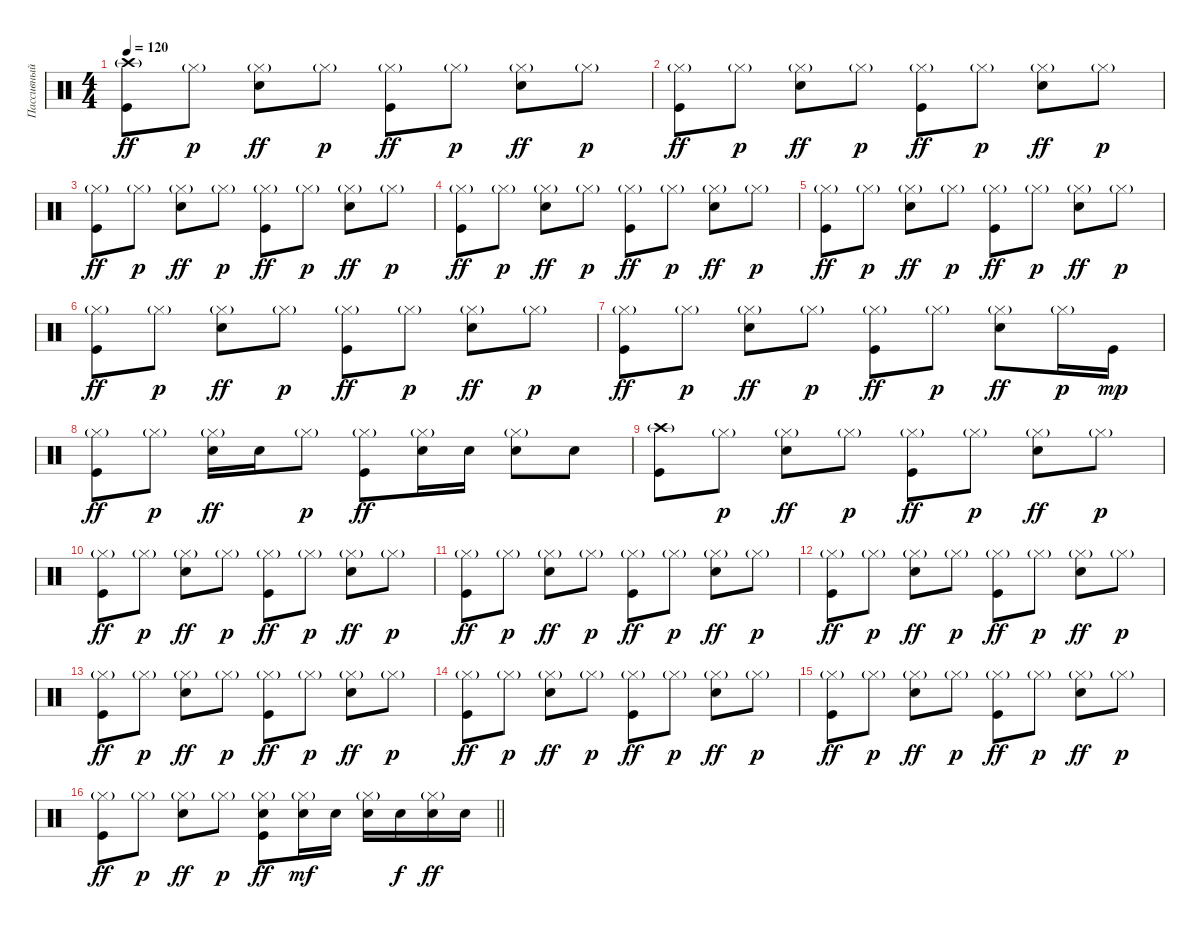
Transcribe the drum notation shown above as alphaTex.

\track ("Пассивный ударник" "Пассивный ") {instrument percussion}
\staff {score}
\articulation defaults
\ts (4 4)
\tempo 120
\clef neutral
\ks c
("Crash high (hit)"{g} "Kick (hit)").8{dy ff} "Hi-Hat (closed)"{g}.8{dy p} ("Hi-Hat (closed)"{g} "Electric Snare (hit)").8{dy ff} "Hi-Hat (closed)"{g}.8{dy p} ("Hi-Hat (closed)"{g} "Kick (hit)").8{dy ff} "Hi-Hat (closed)"{g}.8{dy p} ("Hi-Hat (closed)"{g} "Electric Snare (hit)").8{dy ff} "Hi-Hat (closed)"{g}.8{dy p} |
("Hi-Hat (closed)"{g} "Kick (hit)").8{dy ff} "Hi-Hat (closed)"{g}.8{dy p} ("Hi-Hat (closed)"{g} "Electric Snare (hit)").8{dy ff} "Hi-Hat (closed)"{g}.8{dy p} ("Hi-Hat (closed)"{g} "Kick (hit)").8{dy ff} "Hi-Hat (closed)"{g}.8{dy p} ("Hi-Hat (closed)"{g} "Electric Snare (hit)").8{dy ff} "Hi-Hat (closed)"{g}.8{dy p} |
("Hi-Hat (closed)"{g} "Kick (hit)").8{dy ff} "Hi-Hat (closed)"{g}.8{dy p} ("Hi-Hat (closed)"{g} "Electric Snare (hit)").8{dy ff} "Hi-Hat (closed)"{g}.8{dy p} ("Hi-Hat (closed)"{g} "Kick (hit)").8{dy ff} "Hi-Hat (closed)"{g}.8{dy p} ("Hi-Hat (closed)"{g} "Electric Snare (hit)").8{dy ff} "Hi-Hat (closed)"{g}.8{dy p} |
("Hi-Hat (closed)"{g} "Kick (hit)").8{dy ff} "Hi-Hat (closed)"{g}.8{dy p} ("Hi-Hat (closed)"{g} "Electric Snare (hit)").8{dy ff} "Hi-Hat (closed)"{g}.8{dy p} ("Hi-Hat (closed)"{g} "Kick (hit)").8{dy ff} "Hi-Hat (closed)"{g}.8{dy p} ("Hi-Hat (closed)"{g} "Electric Snare (hit)").8{dy ff} "Hi-Hat (closed)"{g}.8{dy p} |
("Hi-Hat (closed)"{g} "Kick (hit)").8{dy ff} "Hi-Hat (closed)"{g}.8{dy p} ("Hi-Hat (closed)"{g} "Electric Snare (hit)").8{dy ff} "Hi-Hat (closed)"{g}.8{dy p} ("Hi-Hat (closed)"{g} "Kick (hit)").8{dy ff} "Hi-Hat (closed)"{g}.8{dy p} ("Hi-Hat (closed)"{g} "Electric Snare (hit)").8{dy ff} "Hi-Hat (closed)"{g}.8{dy p} |
("Hi-Hat (closed)"{g} "Kick (hit)").8{dy ff} "Hi-Hat (closed)"{g}.8{dy p} ("Hi-Hat (closed)"{g} "Electric Snare (hit)").8{dy ff} "Hi-Hat (closed)"{g}.8{dy p} ("Hi-Hat (closed)"{g} "Kick (hit)").8{dy ff} "Hi-Hat (closed)"{g}.8{dy p} ("Hi-Hat (closed)"{g} "Electric Snare (hit)").8{dy ff} "Hi-Hat (closed)"{g}.8{dy p} |
("Hi-Hat (closed)"{g} "Kick (hit)").8{dy ff} "Hi-Hat (closed)"{g}.8{dy p} ("Hi-Hat (closed)"{g} "Electric Snare (hit)").8{dy ff} "Hi-Hat (closed)"{g}.8{dy p} ("Hi-Hat (closed)"{g} "Kick (hit)").8{dy ff} "Hi-Hat (closed)"{g}.8{dy p} ("Hi-Hat (closed)"{g} "Electric Snare (hit)").8{dy ff} "Hi-Hat (closed)"{g}.16{dy p} "Kick (hit)".16{dy mp} |
("Hi-Hat (closed)"{g} "Kick (hit)").8{dy ff} "Hi-Hat (closed)"{g}.8{dy p} ("Hi-Hat (closed)"{g} "Electric Snare (hit)").16{dy ff} "Electric Snare (hit)".16 "Hi-Hat (closed)"{g}.8{dy p} ("Hi-Hat (closed)"{g} "Kick (hit)").8{dy ff} ("Hi-Hat (closed)"{g} "Electric Snare (hit)").16 "Electric Snare (hit)".16 ("Hi-Hat (closed)"{g} "Electric Snare (hit)").8 "Electric Snare (hit)".8 |
("Crash high (hit)"{g} "Kick (hit)").8 "Hi-Hat (closed)"{g}.8{dy p} ("Hi-Hat (closed)"{g} "Electric Snare (hit)").8{dy ff} "Hi-Hat (closed)"{g}.8{dy p} ("Hi-Hat (closed)"{g} "Kick (hit)").8{dy ff} "Hi-Hat (closed)"{g}.8{dy p} ("Hi-Hat (closed)"{g} "Electric Snare (hit)").8{dy ff} "Hi-Hat (closed)"{g}.8{dy p} |
("Hi-Hat (closed)"{g} "Kick (hit)").8{dy ff} "Hi-Hat (closed)"{g}.8{dy p} ("Hi-Hat (closed)"{g} "Electric Snare (hit)").8{dy ff} "Hi-Hat (closed)"{g}.8{dy p} ("Hi-Hat (closed)"{g} "Kick (hit)").8{dy ff} "Hi-Hat (closed)"{g}.8{dy p} ("Hi-Hat (closed)"{g} "Electric Snare (hit)").8{dy ff} "Hi-Hat (closed)"{g}.8{dy p} |
("Hi-Hat (closed)"{g} "Kick (hit)").8{dy ff} "Hi-Hat (closed)"{g}.8{dy p} ("Hi-Hat (closed)"{g} "Electric Snare (hit)").8{dy ff} "Hi-Hat (closed)"{g}.8{dy p} ("Hi-Hat (closed)"{g} "Kick (hit)").8{dy ff} "Hi-Hat (closed)"{g}.8{dy p} ("Hi-Hat (closed)"{g} "Electric Snare (hit)").8{dy ff} "Hi-Hat (closed)"{g}.8{dy p} |
("Hi-Hat (closed)"{g} "Kick (hit)").8{dy ff} "Hi-Hat (closed)"{g}.8{dy p} ("Hi-Hat (closed)"{g} "Electric Snare (hit)").8{dy ff} "Hi-Hat (closed)"{g}.8{dy p} ("Hi-Hat (closed)"{g} "Kick (hit)").8{dy ff} "Hi-Hat (closed)"{g}.8{dy p} ("Hi-Hat (closed)"{g} "Electric Snare (hit)").8{dy ff} "Hi-Hat (closed)"{g}.8{dy p} |
("Hi-Hat (closed)"{g} "Kick (hit)").8{dy ff} "Hi-Hat (closed)"{g}.8{dy p} ("Hi-Hat (closed)"{g} "Electric Snare (hit)").8{dy ff} "Hi-Hat (closed)"{g}.8{dy p} ("Hi-Hat (closed)"{g} "Kick (hit)").8{dy ff} "Hi-Hat (closed)"{g}.8{dy p} ("Hi-Hat (closed)"{g} "Electric Snare (hit)").8{dy ff} "Hi-Hat (closed)"{g}.8{dy p} |
("Hi-Hat (closed)"{g} "Kick (hit)").8{dy ff} "Hi-Hat (closed)"{g}.8{dy p} ("Hi-Hat (closed)"{g} "Electric Snare (hit)").8{dy ff} "Hi-Hat (closed)"{g}.8{dy p} ("Hi-Hat (closed)"{g} "Kick (hit)").8{dy ff} "Hi-Hat (closed)"{g}.8{dy p} ("Hi-Hat (closed)"{g} "Electric Snare (hit)").8{dy ff} "Hi-Hat (closed)"{g}.8{dy p} |
("Hi-Hat (closed)"{g} "Kick (hit)").8{dy ff} "Hi-Hat (closed)"{g}.8{dy p} ("Hi-Hat (closed)"{g} "Electric Snare (hit)").8{dy ff} "Hi-Hat (closed)"{g}.8{dy p} ("Hi-Hat (closed)"{g} "Kick (hit)").8{dy ff} "Hi-Hat (closed)"{g}.8{dy p} ("Hi-Hat (closed)"{g} "Electric Snare (hit)").8{dy ff} "Hi-Hat (closed)"{g}.8{dy p} |
\barLineRight lightlight
("Hi-Hat (closed)"{g} "Kick (hit)").8{dy ff} "Hi-Hat (closed)"{g}.8{dy p} ("Hi-Hat (closed)"{g} "Electric Snare (hit)").8{dy ff} "Hi-Hat (closed)"{g}.8{dy p} ("Hi-Hat (closed)"{g} "Electric Snare (hit)" "Kick (hit)").8{dy ff} ("Hi-Hat (closed)"{g} "Electric Snare (hit)").16{dy mf} "Electric Snare (hit)".16 ("Hi-Hat (closed)"{g} "Electric Snare (hit)").16 "Electric Snare (hit)".16{dy f} ("Hi-Hat (closed)"{g} "Electric Snare (hit)").16{dy ff} "Electric Snare (hit)".16
